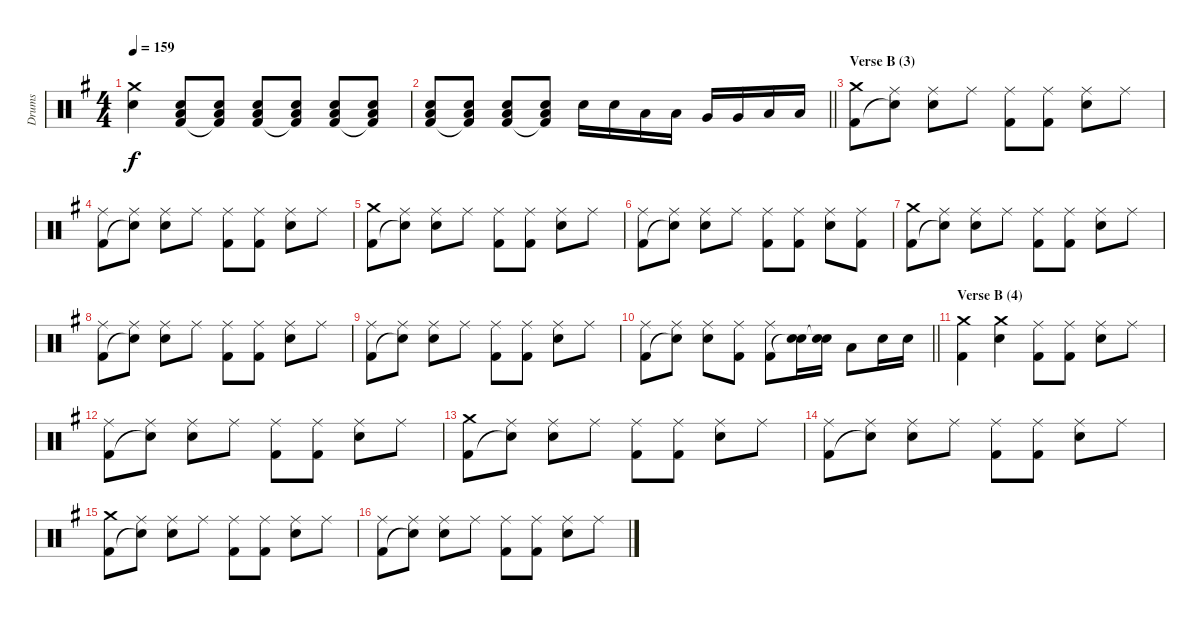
\track ("Drums" "Drums") {instrument percussion}
\staff {score}
\articulation defaults
\ts (4 4)
\tempo 159
\clef neutral
\ks g
("Crash medium (hit)" "Electric Snare (hit)").4{dy f} ("Electric Snare (hit)" "Low Floor Tom (hit)" "Kick (hit) 2").8 ("Electric Snare (hit)" "Low Floor Tom (hit)" "Kick (hit) 2"{t}).8 ("Electric Snare (hit)" "Low Floor Tom (hit)" "Kick (hit) 2").8 ("Electric Snare (hit)" "Low Floor Tom (hit)" "Kick (hit) 2"{t}).8 ("Electric Snare (hit)" "Low Floor Tom (hit)" "Kick (hit) 2").8 ("Electric Snare (hit)" "Low Floor Tom (hit)" "Kick (hit) 2"{t}).8 |
\barLineRight lightlight
("Electric Snare (hit)" "Low Floor Tom (hit)" "Kick (hit) 2").8 ("Electric Snare (hit)" "Low Floor Tom (hit)" "Kick (hit) 2"{t}).8 ("Electric Snare (hit)" "Low Floor Tom (hit)" "Kick (hit) 2").8 ("Electric Snare (hit)" "Low Floor Tom (hit)" "Kick (hit) 2"{t}).8 "Electric Snare (hit)".16 "Electric Snare (hit)".16 "Low Tom (hit)".16 "Low Tom (hit)".16 "Very Low Tom (hit)".16 "Very Low Tom (hit)".16 "Low Floor Tom (hit)".16 "Low Floor Tom (hit)".16 |
\section ("" "Verse B (3)")
("Crash medium (hit)" "Kick (hit) 2").8 ("Ride (middle)" "Snare (hit)"{t}).8 ("Ride (middle)" "Electric Snare (hit)").8 "Ride (middle)".8 ("Ride (middle)" "Kick (hit) 2").8 ("Ride (middle)" "Kick (hit) 2").8 ("Ride (middle)" "Electric Snare (hit)").8 "Ride (middle)".8 |
("Ride (middle)" "Kick (hit) 2").8 ("Ride (middle)" "Snare (hit)"{t}).8 ("Ride (middle)" "Electric Snare (hit)").8 "Ride (middle)".8 ("Ride (middle)" "Kick (hit) 2").8 ("Ride (middle)" "Kick (hit) 2").8 ("Ride (middle)" "Electric Snare (hit)").8 "Ride (middle)".8 |
("Crash medium (hit)" "Kick (hit) 2").8 ("Ride (middle)" "Snare (hit)"{t}).8 ("Ride (middle)" "Electric Snare (hit)").8 "Ride (middle)".8 ("Ride (middle)" "Kick (hit) 2").8 ("Ride (middle)" "Kick (hit) 2").8 ("Ride (middle)" "Electric Snare (hit)").8 "Ride (middle)".8 |
("Ride (middle)" "Kick (hit) 2").8 ("Ride (middle)" "Snare (hit)"{t}).8 ("Ride (middle)" "Electric Snare (hit)").8 "Ride (middle)".8 ("Ride (middle)" "Kick (hit) 2").8 ("Ride (middle)" "Kick (hit) 2").8 ("Ride (middle)" "Electric Snare (hit)").8 ("Ride (middle)" "Kick (hit) 2").8 |
("Crash medium (hit)" "Kick (hit) 2").8 ("Ride (middle)" "Snare (hit)"{t}).8 ("Ride (middle)" "Electric Snare (hit)").8 "Ride (middle)".8 ("Ride (middle)" "Kick (hit) 2").8 ("Ride (middle)" "Kick (hit) 2").8 ("Ride (middle)" "Electric Snare (hit)").8 "Ride (middle)".8 |
("Ride (middle)" "Kick (hit) 2").8 ("Ride (middle)" "Snare (hit)"{t}).8 ("Ride (middle)" "Electric Snare (hit)").8 "Ride (middle)".8 ("Ride (middle)" "Kick (hit) 2").8 ("Ride (middle)" "Kick (hit) 2").8 ("Ride (middle)" "Electric Snare (hit)").8 "Ride (middle)".8 |
("Ride (middle)" "Kick (hit) 2").8 ("Ride (middle)" "Snare (hit)"{t}).8 ("Ride (middle)" "Electric Snare (hit)").8 "Ride (middle)".8 ("Ride (middle)" "Kick (hit) 2").8 ("Ride (middle)" "Kick (hit) 2").8 ("Ride (middle)" "Electric Snare (hit)").8 "Ride (middle)".8 |
\barLineRight lightlight
("Ride (middle)" "Kick (hit) 2").8 ("Ride (middle)" "Snare (hit)"{t}).8 ("Ride (middle)" "Electric Snare (hit)").8 ("Ride (middle)" "Kick (hit) 2").8 ("Ride (middle)" "Kick (hit) 2").8 ("Electric Snare (hit)" "Snare (hit)"{t}).16 ("Electric Snare (hit)" "Snare (hit)"{t}).16 "Low Floor Tom (hit)".8 "Electric Snare (hit)".16 "Electric Snare (hit)".16 |
\section ("" "Verse B (4)")
("Crash medium (hit)" "Kick (hit) 2").4 ("Crash medium (hit)" "Electric Snare (hit)").4 ("Ride (middle)" "Kick (hit) 2").8 ("Ride (middle)" "Kick (hit) 2").8 ("Ride (middle)" "Electric Snare (hit)").8 "Ride (middle)".8 |
("Ride (middle)" "Kick (hit) 2").8 ("Ride (middle)" "Snare (hit)"{t}).8 ("Ride (middle)" "Electric Snare (hit)").8 "Ride (middle)".8 ("Ride (middle)" "Kick (hit) 2").8 ("Ride (middle)" "Kick (hit) 2").8 ("Ride (middle)" "Electric Snare (hit)").8 "Ride (middle)".8 |
("Crash medium (hit)" "Kick (hit) 2").8 ("Ride (middle)" "Snare (hit)"{t}).8 ("Ride (middle)" "Electric Snare (hit)").8 "Ride (middle)".8 ("Ride (middle)" "Kick (hit) 2").8 ("Ride (middle)" "Kick (hit) 2").8 ("Ride (middle)" "Electric Snare (hit)").8 "Ride (middle)".8 |
("Ride (middle)" "Kick (hit) 2").8 ("Ride (middle)" "Snare (hit)"{t}).8 ("Ride (middle)" "Electric Snare (hit)").8 "Ride (middle)".8 ("Ride (middle)" "Kick (hit) 2").8 ("Ride (middle)" "Kick (hit) 2").8 ("Ride (middle)" "Electric Snare (hit)").8 "Ride (middle)".8 |
("Crash medium (hit)" "Kick (hit) 2").8 ("Ride (middle)" "Snare (hit)"{t}).8 ("Ride (middle)" "Electric Snare (hit)").8 "Ride (middle)".8 ("Ride (middle)" "Kick (hit) 2").8 ("Ride (middle)" "Kick (hit) 2").8 ("Ride (middle)" "Electric Snare (hit)").8 "Ride (middle)".8 |
("Ride (middle)" "Kick (hit) 2").8 ("Ride (middle)" "Snare (hit)"{t}).8 ("Ride (middle)" "Electric Snare (hit)").8 "Ride (middle)".8 ("Ride (middle)" "Kick (hit) 2").8 ("Ride (middle)" "Kick (hit) 2").8 ("Ride (middle)" "Electric Snare (hit)").8 "Ride (middle)".8
